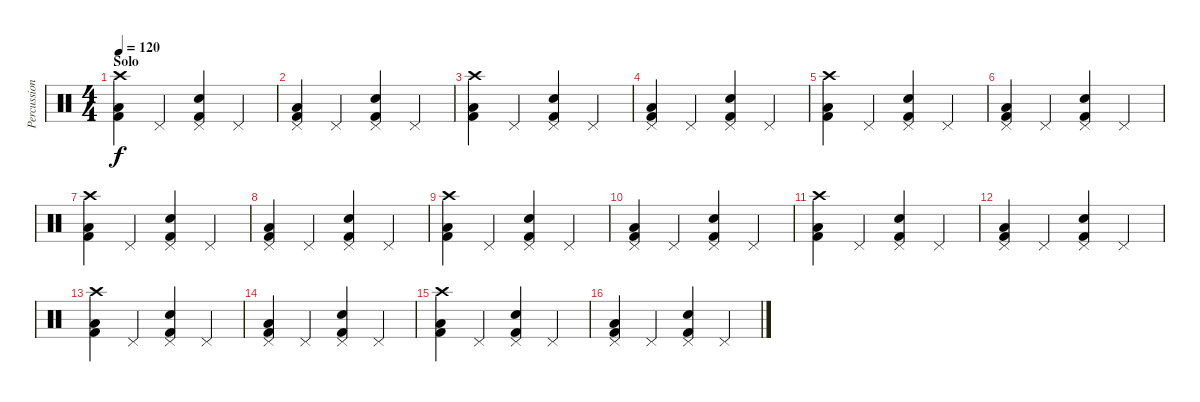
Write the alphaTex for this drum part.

\track ("Percussion" "Percussion") {instrument percussion}
\staff {score}
\articulation defaults
\ts (4 4)
\section ("" "Solo")
\tempo 120
\clef neutral
\ks c
("Crash high (hit)" "Low Floor Tom (hit)" "Kick (hit) 2").4{dy f} "Pedal Hi-Hat (hit)".4 ("Pedal Hi-Hat (hit)" "Snare (hit) 2" "Kick (hit) 2").4 "Pedal Hi-Hat (hit)".4 |
("Pedal Hi-Hat (hit)" "Low Floor Tom (hit)" "Kick (hit) 2").4 "Pedal Hi-Hat (hit)".4 ("Pedal Hi-Hat (hit)" "Snare (hit) 2" "Kick (hit) 2").4 "Pedal Hi-Hat (hit)".4 |
("Crash high (hit)" "Low Floor Tom (hit)" "Kick (hit) 2").4 "Pedal Hi-Hat (hit)".4 ("Pedal Hi-Hat (hit)" "Snare (hit) 2" "Kick (hit) 2").4 "Pedal Hi-Hat (hit)".4 |
("Pedal Hi-Hat (hit)" "Low Floor Tom (hit)" "Kick (hit) 2").4 "Pedal Hi-Hat (hit)".4 ("Pedal Hi-Hat (hit)" "Snare (hit) 2" "Kick (hit) 2").4 "Pedal Hi-Hat (hit)".4 |
("Crash high (hit)" "Low Floor Tom (hit)" "Kick (hit) 2").4 "Pedal Hi-Hat (hit)".4 ("Pedal Hi-Hat (hit)" "Snare (hit) 2" "Kick (hit) 2").4 "Pedal Hi-Hat (hit)".4 |
("Pedal Hi-Hat (hit)" "Low Floor Tom (hit)" "Kick (hit) 2").4 "Pedal Hi-Hat (hit)".4 ("Pedal Hi-Hat (hit)" "Snare (hit) 2" "Kick (hit) 2").4 "Pedal Hi-Hat (hit)".4 |
("Crash high (hit)" "Low Floor Tom (hit)" "Kick (hit) 2").4 "Pedal Hi-Hat (hit)".4 ("Pedal Hi-Hat (hit)" "Snare (hit) 2" "Kick (hit) 2").4 "Pedal Hi-Hat (hit)".4 |
("Pedal Hi-Hat (hit)" "Low Floor Tom (hit)" "Kick (hit) 2").4 "Pedal Hi-Hat (hit)".4 ("Pedal Hi-Hat (hit)" "Snare (hit) 2" "Kick (hit) 2").4 "Pedal Hi-Hat (hit)".4 |
("Crash high (hit)" "Low Floor Tom (hit)" "Kick (hit) 2").4 "Pedal Hi-Hat (hit)".4 ("Pedal Hi-Hat (hit)" "Snare (hit) 2" "Kick (hit) 2").4 "Pedal Hi-Hat (hit)".4 |
("Pedal Hi-Hat (hit)" "Low Floor Tom (hit)" "Kick (hit) 2").4 "Pedal Hi-Hat (hit)".4 ("Pedal Hi-Hat (hit)" "Snare (hit) 2" "Kick (hit) 2").4 "Pedal Hi-Hat (hit)".4 |
("Crash high (hit)" "Low Floor Tom (hit)" "Kick (hit) 2").4 "Pedal Hi-Hat (hit)".4 ("Pedal Hi-Hat (hit)" "Snare (hit) 2" "Kick (hit) 2").4 "Pedal Hi-Hat (hit)".4 |
("Pedal Hi-Hat (hit)" "Low Floor Tom (hit)" "Kick (hit) 2").4 "Pedal Hi-Hat (hit)".4 ("Pedal Hi-Hat (hit)" "Snare (hit) 2" "Kick (hit) 2").4 "Pedal Hi-Hat (hit)".4 |
("Crash high (hit)" "Low Floor Tom (hit)" "Kick (hit) 2").4 "Pedal Hi-Hat (hit)".4 ("Pedal Hi-Hat (hit)" "Snare (hit) 2" "Kick (hit) 2").4 "Pedal Hi-Hat (hit)".4 |
("Pedal Hi-Hat (hit)" "Low Floor Tom (hit)" "Kick (hit) 2").4 "Pedal Hi-Hat (hit)".4 ("Pedal Hi-Hat (hit)" "Snare (hit) 2" "Kick (hit) 2").4 "Pedal Hi-Hat (hit)".4 |
("Crash high (hit)" "Low Floor Tom (hit)" "Kick (hit) 2").4 "Pedal Hi-Hat (hit)".4 ("Pedal Hi-Hat (hit)" "Snare (hit) 2" "Kick (hit) 2").4 "Pedal Hi-Hat (hit)".4 |
("Pedal Hi-Hat (hit)" "Low Floor Tom (hit)" "Kick (hit) 2").4 "Pedal Hi-Hat (hit)".4 ("Pedal Hi-Hat (hit)" "Snare (hit) 2" "Kick (hit) 2").4 "Pedal Hi-Hat (hit)".4
